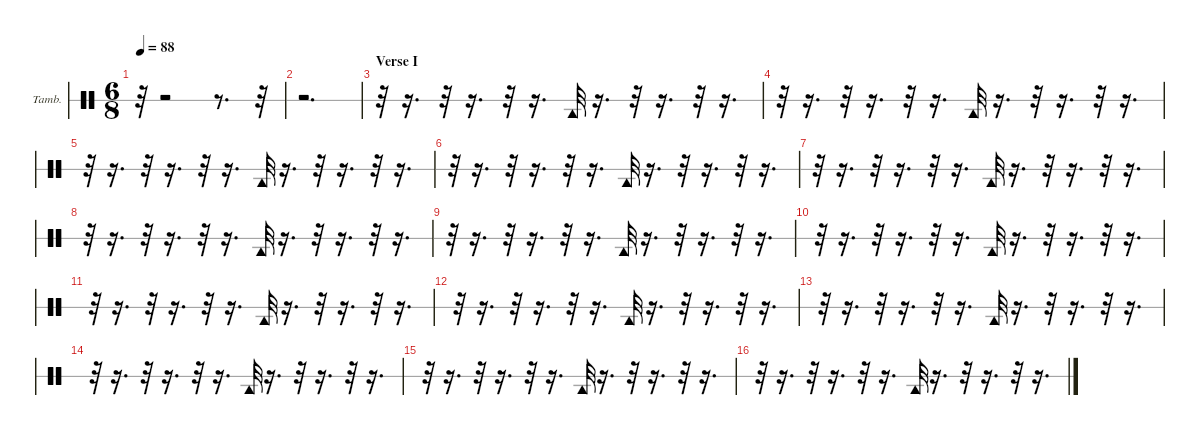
\hideDynamics
\bracketExtendMode nobrackets
\firstSystemTrackNameOrientation horizontal
\otherSystemsTrackNameOrientation horizontal
\track ("Tambourine" "Tamb.") {instrument percussion}
\staff {score 1}
\articulation defaults
\ts (6 8)
\tempo 88
\clef neutral
\ks c
r.32{dy ff} r.2 r.8{d} r.32 |
r.2{d} |
\section ("" "Verse I")
r.32 r.16{d} r.32 r.16{d} r.32 r.16{d} "Tambourine (hit)".32 r.16{d} r.32 r.16{d} r.32 r.16{d} |
r.32 r.16{d} r.32 r.16{d} r.32 r.16{d} "Tambourine (hit)".32 r.16{d} r.32 r.16{d} r.32 r.16{d} |
r.32 r.16{d} r.32 r.16{d} r.32 r.16{d} "Tambourine (hit)".32 r.16{d} r.32 r.16{d} r.32 r.16{d} |
r.32 r.16{d} r.32 r.16{d} r.32 r.16{d} "Tambourine (hit)".32 r.16{d} r.32 r.16{d} r.32 r.16{d} |
r.32 r.16{d} r.32 r.16{d} r.32 r.16{d} "Tambourine (hit)".32 r.16{d} r.32 r.16{d} r.32 r.16{d} |
r.32 r.16{d} r.32 r.16{d} r.32 r.16{d} "Tambourine (hit)".32 r.16{d} r.32 r.16{d} r.32 r.16{d} |
r.32 r.16{d} r.32 r.16{d} r.32 r.16{d} "Tambourine (hit)".32 r.16{d} r.32 r.16{d} r.32 r.16{d} |
r.32 r.16{d} r.32 r.16{d} r.32 r.16{d} "Tambourine (hit)".32 r.16{d} r.32 r.16{d} r.32 r.16{d} |
r.32 r.16{d} r.32 r.16{d} r.32 r.16{d} "Tambourine (hit)".32 r.16{d} r.32 r.16{d} r.32 r.16{d} |
r.32 r.16{d} r.32 r.16{d} r.32 r.16{d} "Tambourine (hit)".32 r.16{d} r.32 r.16{d} r.32 r.16{d} |
r.32 r.16{d} r.32 r.16{d} r.32 r.16{d} "Tambourine (hit)".32 r.16{d} r.32 r.16{d} r.32 r.16{d} |
r.32 r.16{d} r.32 r.16{d} r.32 r.16{d} "Tambourine (hit)".32 r.16{d} r.32 r.16{d} r.32 r.16{d} |
r.32 r.16{d} r.32 r.16{d} r.32 r.16{d} "Tambourine (hit)".32 r.16{d} r.32 r.16{d} r.32 r.16{d} |
r.32 r.16{d} r.32 r.16{d} r.32 r.16{d} "Tambourine (hit)".32 r.16{d} r.32 r.16{d} r.32 r.16{d}
